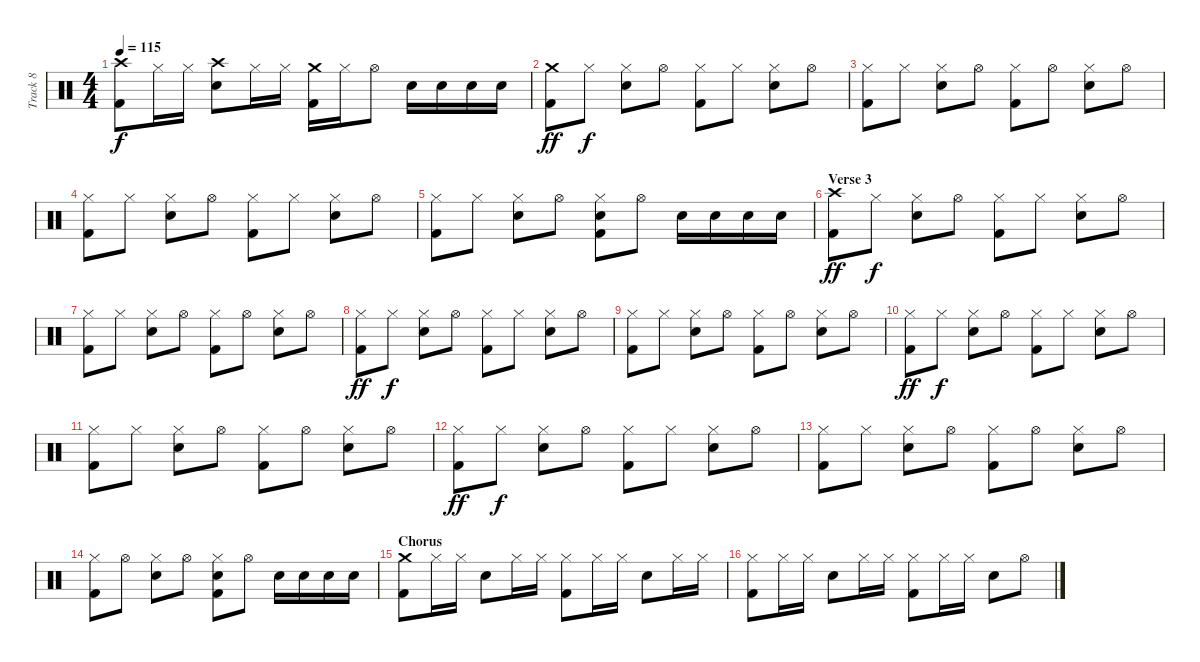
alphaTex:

\track ("Track 8" "Track 8") {instrument percussion}
\staff {score}
\articulation defaults
\ts (4 4)
\tempo 115
\clef neutral
\ks c
("Crash high (hit)" "Kick (hit) 2").8{dy f} "Hi-Hat (closed)".16 "Hi-Hat (closed)".16 ("Crash high (hit)" "Electric Snare (hit)").8 "Hi-Hat (closed)".16 "Hi-Hat (closed)".16 ("Crash medium (hit)" "Kick (hit) 2").16 "Hi-Hat (closed)".16 "Hi-Hat (open)".8 "Electric Snare (hit)".16 "Electric Snare (hit)".16 "Electric Snare (hit)".16 "Electric Snare (hit)".16 |
("Crash medium (hit)" "Kick (hit) 2").8{dy ff} "Hi-Hat (closed)".8{dy f} ("Hi-Hat (closed)" "Electric Snare (hit)").8 "Hi-Hat (open)".8 ("Hi-Hat (closed)" "Kick (hit) 2").8 "Hi-Hat (closed)".8 ("Hi-Hat (closed)" "Electric Snare (hit)").8 "Hi-Hat (open)".8 |
("Hi-Hat (closed)" "Kick (hit) 2").8 "Hi-Hat (closed)".8 ("Hi-Hat (closed)" "Electric Snare (hit)").8 "Hi-Hat (open)".8 ("Hi-Hat (closed)" "Kick (hit) 2").8 "Hi-Hat (open)".8 ("Hi-Hat (closed)" "Electric Snare (hit)").8 "Hi-Hat (open)".8 |
("Hi-Hat (closed)" "Kick (hit) 2").8 "Hi-Hat (closed)".8 ("Hi-Hat (closed)" "Electric Snare (hit)").8 "Hi-Hat (open)".8 ("Hi-Hat (closed)" "Kick (hit) 2").8 "Hi-Hat (closed)".8 ("Hi-Hat (closed)" "Electric Snare (hit)").8 "Hi-Hat (open)".8 |
("Hi-Hat (closed)" "Kick (hit) 2").8 "Hi-Hat (closed)".8 ("Hi-Hat (closed)" "Electric Snare (hit)").8 "Hi-Hat (open)".8 ("Hi-Hat (closed)" "Kick (hit) 2" "Electric Snare (hit)").8 "Hi-Hat (open)".8 "Electric Snare (hit)".16 "Electric Snare (hit)".16 "Electric Snare (hit)".16 "Electric Snare (hit)".16 |
\section ("" "Verse 3")
("Crash high (hit)" "Kick (hit) 2").8{dy ff} "Hi-Hat (closed)".8{dy f} ("Hi-Hat (closed)" "Electric Snare (hit)").8 "Hi-Hat (open)".8 ("Hi-Hat (closed)" "Kick (hit) 2").8 "Hi-Hat (closed)".8 ("Hi-Hat (closed)" "Electric Snare (hit)").8 "Hi-Hat (open)".8 |
("Hi-Hat (closed)" "Kick (hit) 2").8 "Hi-Hat (closed)".8 ("Hi-Hat (closed)" "Electric Snare (hit)").8 "Hi-Hat (open)".8 ("Hi-Hat (closed)" "Kick (hit) 2").8 "Hi-Hat (open)".8 ("Hi-Hat (closed)" "Electric Snare (hit)").8 "Hi-Hat (open)".8 |
("Hi-Hat (closed)" "Kick (hit) 2").8{dy ff} "Hi-Hat (closed)".8{dy f} ("Hi-Hat (closed)" "Electric Snare (hit)").8 "Hi-Hat (open)".8 ("Hi-Hat (closed)" "Kick (hit) 2").8 "Hi-Hat (closed)".8 ("Hi-Hat (closed)" "Electric Snare (hit)").8 "Hi-Hat (open)".8 |
("Hi-Hat (closed)" "Kick (hit) 2").8 "Hi-Hat (closed)".8 ("Hi-Hat (closed)" "Electric Snare (hit)").8 "Hi-Hat (open)".8 ("Hi-Hat (closed)" "Kick (hit) 2").8 "Hi-Hat (open)".8 ("Hi-Hat (closed)" "Electric Snare (hit)").8 "Hi-Hat (open)".8 |
("Hi-Hat (closed)" "Kick (hit) 2").8{dy ff} "Hi-Hat (closed)".8{dy f} ("Hi-Hat (closed)" "Electric Snare (hit)").8 "Hi-Hat (open)".8 ("Hi-Hat (closed)" "Kick (hit) 2").8 "Hi-Hat (closed)".8 ("Hi-Hat (closed)" "Electric Snare (hit)").8 "Hi-Hat (open)".8 |
("Hi-Hat (closed)" "Kick (hit) 2").8 "Hi-Hat (closed)".8 ("Hi-Hat (closed)" "Electric Snare (hit)").8 "Hi-Hat (open)".8 ("Hi-Hat (closed)" "Kick (hit) 2").8 "Hi-Hat (open)".8 ("Hi-Hat (closed)" "Electric Snare (hit)").8 "Hi-Hat (open)".8 |
("Hi-Hat (closed)" "Kick (hit) 2").8{dy ff} "Hi-Hat (closed)".8{dy f} ("Hi-Hat (closed)" "Electric Snare (hit)").8 "Hi-Hat (open)".8 ("Hi-Hat (closed)" "Kick (hit) 2").8 "Hi-Hat (closed)".8 ("Hi-Hat (closed)" "Electric Snare (hit)").8 "Hi-Hat (open)".8 |
("Hi-Hat (closed)" "Kick (hit) 2").8 "Hi-Hat (closed)".8 ("Hi-Hat (closed)" "Electric Snare (hit)").8 "Hi-Hat (open)".8 ("Hi-Hat (closed)" "Kick (hit) 2").8 "Hi-Hat (open)".8 ("Hi-Hat (closed)" "Electric Snare (hit)").8 "Hi-Hat (open)".8 |
("Hi-Hat (closed)" "Kick (hit) 2").8 "Hi-Hat (open)".8 ("Hi-Hat (closed)" "Electric Snare (hit)").8 "Hi-Hat (open)".8 ("Hi-Hat (closed)" "Kick (hit) 2" "Electric Snare (hit)").8 "Hi-Hat (open)".8 "Electric Snare (hit)".16 "Electric Snare (hit)".16 "Electric Snare (hit)".16 "Electric Snare (hit)".16 |
\section ("" "Chorus")
("Crash medium (hit)" "Kick (hit) 2").8 "Hi-Hat (closed)".16 "Hi-Hat (closed)".16 "Electric Snare (hit)".8 "Hi-Hat (closed)".16 "Hi-Hat (closed)".16 ("Hi-Hat (closed)" "Kick (hit) 2").8 "Hi-Hat (closed)".16 "Hi-Hat (closed)".16 "Electric Snare (hit)".8 "Hi-Hat (closed)".16 "Hi-Hat (closed)".16 |
("Hi-Hat (closed)" "Kick (hit) 2").8 "Hi-Hat (closed)".16 "Hi-Hat (closed)".16 "Electric Snare (hit)".8 "Hi-Hat (closed)".16 "Hi-Hat (closed)".16 ("Hi-Hat (closed)" "Kick (hit) 2").8 "Hi-Hat (closed)".16 "Hi-Hat (closed)".16 "Electric Snare (hit)".8 "Hi-Hat (open)".8
